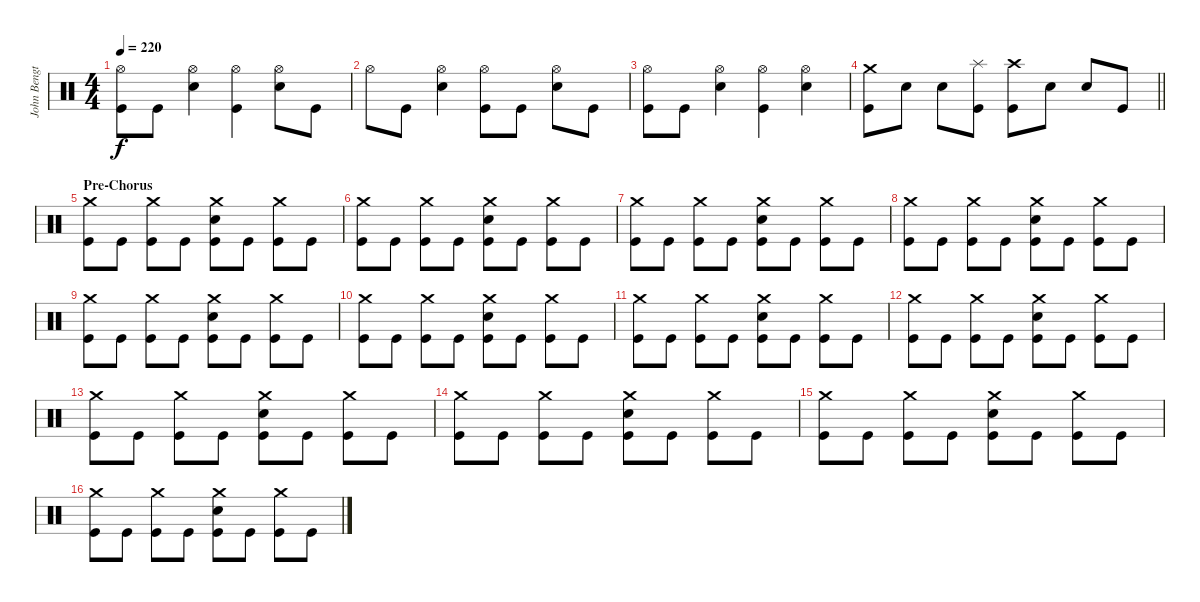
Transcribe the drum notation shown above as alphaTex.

\track ("John Bengtsson" "John Bengt") {instrument percussion}
\staff {score}
\articulation defaults
\ts (4 4)
\tempo 220
\clef neutral
\ks c
("Hi-Hat (open)" "Kick (hit)").8{dy f} "Kick (hit)".8 ("Hi-Hat (open)" "Snare (hit) 2").4 ("Hi-Hat (open)" "Kick (hit)").4 ("Hi-Hat (open)" "Snare (hit) 2").8 "Kick (hit)".8 |
"Hi-Hat (open)".8 "Kick (hit)".8 ("Hi-Hat (open)" "Snare (hit) 2").4 ("Hi-Hat (open)" "Kick (hit)").8 "Kick (hit)".8 ("Hi-Hat (open)" "Snare (hit) 2").8 "Kick (hit)".8 |
("Hi-Hat (open)" "Kick (hit)").8 "Kick (hit)".8 ("Hi-Hat (open)" "Snare (hit) 2").4 ("Hi-Hat (open)" "Kick (hit)").4 ("Hi-Hat (open)" "Snare (hit) 2").4 |
\barLineRight lightlight
("Crash medium (hit)" "Kick (hit)").8 "Snare (hit) 2".8 "Snare (hit) 2".8 ("Splash (hit)" "Kick (hit)").8 ("Crash high (hit)" "Kick (hit)").8 "Snare (hit) 2".8 "Snare (hit) 2".8 "Kick (hit)".8 |
\section ("" "Pre-Chorus")
("Crash medium (hit)" "Kick (hit)").8 "Kick (hit)".8 ("Crash medium (hit)" "Kick (hit)").8 "Kick (hit)".8 ("Crash medium (hit)" "Snare (hit) 2" "Kick (hit)").8 "Kick (hit)".8 ("Crash medium (hit)" "Kick (hit)").8 "Kick (hit)".8 |
("Crash medium (hit)" "Kick (hit)").8 "Kick (hit)".8 ("Crash medium (hit)" "Kick (hit)").8 "Kick (hit)".8 ("Crash medium (hit)" "Snare (hit) 2" "Kick (hit)").8 "Kick (hit)".8 ("Crash medium (hit)" "Kick (hit)").8 "Kick (hit)".8 |
("Crash medium (hit)" "Kick (hit)").8 "Kick (hit)".8 ("Crash medium (hit)" "Kick (hit)").8 "Kick (hit)".8 ("Crash medium (hit)" "Snare (hit) 2" "Kick (hit)").8 "Kick (hit)".8 ("Crash medium (hit)" "Kick (hit)").8 "Kick (hit)".8 |
("Crash medium (hit)" "Kick (hit)").8 "Kick (hit)".8 ("Crash medium (hit)" "Kick (hit)").8 "Kick (hit)".8 ("Crash medium (hit)" "Snare (hit) 2" "Kick (hit)").8 "Kick (hit)".8 ("Crash medium (hit)" "Kick (hit)").8 "Kick (hit)".8 |
("Crash medium (hit)" "Kick (hit)").8 "Kick (hit)".8 ("Crash medium (hit)" "Kick (hit)").8 "Kick (hit)".8 ("Crash medium (hit)" "Snare (hit) 2" "Kick (hit)").8 "Kick (hit)".8 ("Crash medium (hit)" "Kick (hit)").8 "Kick (hit)".8 |
("Crash medium (hit)" "Kick (hit)").8 "Kick (hit)".8 ("Crash medium (hit)" "Kick (hit)").8 "Kick (hit)".8 ("Crash medium (hit)" "Snare (hit) 2" "Kick (hit)").8 "Kick (hit)".8 ("Crash medium (hit)" "Kick (hit)").8 "Kick (hit)".8 |
("Crash medium (hit)" "Kick (hit)").8 "Kick (hit)".8 ("Crash medium (hit)" "Kick (hit)").8 "Kick (hit)".8 ("Crash medium (hit)" "Snare (hit) 2" "Kick (hit)").8 "Kick (hit)".8 ("Crash medium (hit)" "Kick (hit)").8 "Kick (hit)".8 |
("Crash medium (hit)" "Kick (hit)").8 "Kick (hit)".8 ("Crash medium (hit)" "Kick (hit)").8 "Kick (hit)".8 ("Crash medium (hit)" "Snare (hit) 2" "Kick (hit)").8 "Kick (hit)".8 ("Crash medium (hit)" "Kick (hit)").8 "Kick (hit)".8 |
("Crash medium (hit)" "Kick (hit)").8 "Kick (hit)".8 ("Crash medium (hit)" "Kick (hit)").8 "Kick (hit)".8 ("Crash medium (hit)" "Snare (hit) 2" "Kick (hit)").8 "Kick (hit)".8 ("Crash medium (hit)" "Kick (hit)").8 "Kick (hit)".8 |
("Crash medium (hit)" "Kick (hit)").8 "Kick (hit)".8 ("Crash medium (hit)" "Kick (hit)").8 "Kick (hit)".8 ("Crash medium (hit)" "Snare (hit) 2" "Kick (hit)").8 "Kick (hit)".8 ("Crash medium (hit)" "Kick (hit)").8 "Kick (hit)".8 |
("Crash medium (hit)" "Kick (hit)").8 "Kick (hit)".8 ("Crash medium (hit)" "Kick (hit)").8 "Kick (hit)".8 ("Crash medium (hit)" "Snare (hit) 2" "Kick (hit)").8 "Kick (hit)".8 ("Crash medium (hit)" "Kick (hit)").8 "Kick (hit)".8 |
("Crash medium (hit)" "Kick (hit)").8 "Kick (hit)".8 ("Crash medium (hit)" "Kick (hit)").8 "Kick (hit)".8 ("Crash medium (hit)" "Snare (hit) 2" "Kick (hit)").8 "Kick (hit)".8 ("Crash medium (hit)" "Kick (hit)").8 "Kick (hit)".8
